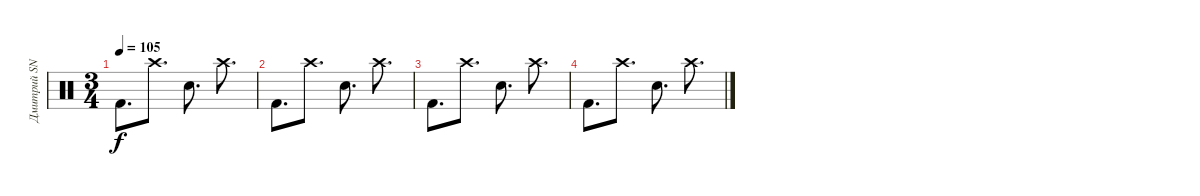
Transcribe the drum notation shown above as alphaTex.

\track ("Дмитрий SNAKE Хакимов" "Дмитрий SN") {instrument percussion}
\staff {score}
\articulation defaults
\ts (3 4)
\tempo 105
\clef neutral
\ks c "Kick (hit) 2".8{d dy f} "Crash high (hit)".8{d} "Snare (hit) 2".8{d} "Crash high (hit)".8{d}
|
"Kick (hit) 2".8{d} "Crash high (hit)".8{d} "Snare (hit) 2".8{d} "Crash high (hit)".8{d} |
"Kick (hit) 2".8{d} "Crash high (hit)".8{d} "Snare (hit) 2".8{d} "Crash high (hit)".8{d} |
"Kick (hit) 2".8{d} "Crash high (hit)".8{d} "Snare (hit) 2".8{d} "Crash high (hit)".8{d}
